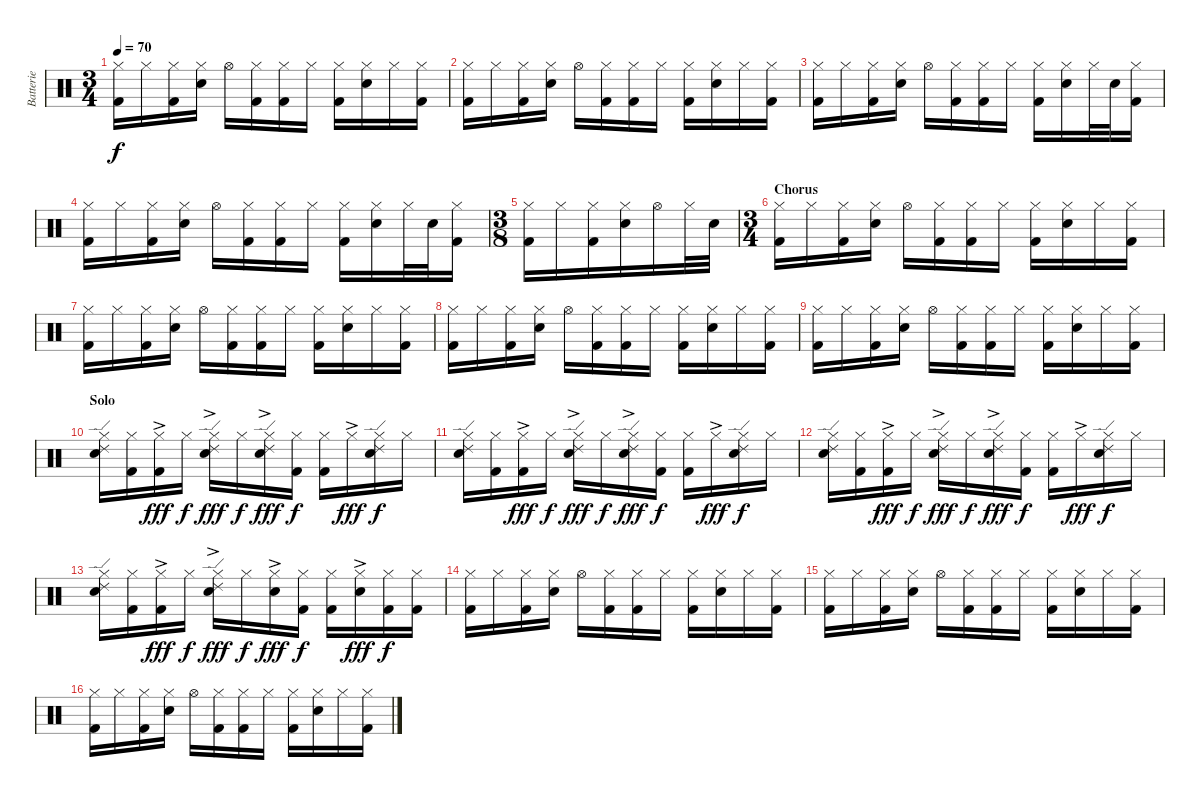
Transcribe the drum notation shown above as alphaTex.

\track ("Batterie" "Batterie") {instrument percussion}
\staff {score}
\articulation defaults
\ts (3 4)
\tempo 70
\clef neutral
\ks c
("Kick (hit) 2" "Hi-Hat (closed)").16{dy f} "Hi-Hat (closed)".16 ("Kick (hit) 2" "Hi-Hat (closed)").16 ("Electric Snare (hit)" "Hi-Hat (closed)").16 "Hi-Hat (open)".16 ("Kick (hit) 2" "Hi-Hat (closed)").16 ("Kick (hit) 2" "Hi-Hat (closed)").16 "Hi-Hat (closed)".16 ("Kick (hit) 2" "Hi-Hat (closed)").16 ("Electric Snare (hit)" "Hi-Hat (closed)").16 "Hi-Hat (closed)".16 ("Kick (hit) 2" "Hi-Hat (closed)").16 |
("Kick (hit) 2" "Hi-Hat (closed)").16 "Hi-Hat (closed)".16 ("Kick (hit) 2" "Hi-Hat (closed)").16 ("Electric Snare (hit)" "Hi-Hat (closed)").16 "Hi-Hat (open)".16 ("Kick (hit) 2" "Hi-Hat (closed)").16 ("Kick (hit) 2" "Hi-Hat (closed)").16 "Hi-Hat (closed)".16 ("Kick (hit) 2" "Hi-Hat (closed)").16 ("Electric Snare (hit)" "Hi-Hat (closed)").16 "Hi-Hat (closed)".16 ("Kick (hit) 2" "Hi-Hat (closed)").16 |
("Kick (hit) 2" "Hi-Hat (closed)").16 "Hi-Hat (closed)".16 ("Kick (hit) 2" "Hi-Hat (closed)").16 ("Electric Snare (hit)" "Hi-Hat (closed)").16 "Hi-Hat (open)".16 ("Kick (hit) 2" "Hi-Hat (closed)").16 ("Kick (hit) 2" "Hi-Hat (closed)").16 "Hi-Hat (closed)".16 ("Kick (hit) 2" "Hi-Hat (closed)").16 ("Electric Snare (hit)" "Hi-Hat (closed)").16 "Hi-Hat (closed)".32 "Electric Snare (hit)".32 ("Kick (hit) 2" "Hi-Hat (closed)").16 |
("Kick (hit) 2" "Hi-Hat (closed)").16 "Hi-Hat (closed)".16 ("Kick (hit) 2" "Hi-Hat (closed)").16 ("Electric Snare (hit)" "Hi-Hat (closed)").16 "Hi-Hat (open)".16 ("Kick (hit) 2" "Hi-Hat (closed)").16 ("Kick (hit) 2" "Hi-Hat (closed)").16 "Hi-Hat (closed)".16 ("Kick (hit) 2" "Hi-Hat (closed)").16 ("Electric Snare (hit)" "Hi-Hat (closed)").16 "Hi-Hat (closed)".32 "Electric Snare (hit)".32 ("Kick (hit) 2" "Hi-Hat (closed)").16 |
\ts (3 8)
("Kick (hit) 2" "Hi-Hat (closed)").16 "Hi-Hat (closed)".16 ("Kick (hit) 2" "Hi-Hat (closed)").16 ("Electric Snare (hit)" "Hi-Hat (closed)").16 "Hi-Hat (open)".16 "Hi-Hat (closed)".32 "Electric Snare (hit)".32 |
\ts (3 4)
\section ("" "Chorus")
("Kick (hit) 2" "Hi-Hat (closed)").16 "Hi-Hat (closed)".16 ("Kick (hit) 2" "Hi-Hat (closed)").16 ("Electric Snare (hit)" "Hi-Hat (closed)").16 "Hi-Hat (open)".16 ("Kick (hit) 2" "Hi-Hat (closed)").16 ("Kick (hit) 2" "Hi-Hat (closed)").16 "Hi-Hat (closed)".16 ("Kick (hit) 2" "Hi-Hat (closed)").16 ("Electric Snare (hit)" "Hi-Hat (closed)").16 "Hi-Hat (closed)".16 ("Kick (hit) 2" "Hi-Hat (closed)").16 |
("Kick (hit) 2" "Hi-Hat (closed)").16 "Hi-Hat (closed)".16 ("Kick (hit) 2" "Hi-Hat (closed)").16 ("Electric Snare (hit)" "Hi-Hat (closed)").16 "Hi-Hat (open)".16 ("Kick (hit) 2" "Hi-Hat (closed)").16 ("Kick (hit) 2" "Hi-Hat (closed)").16 "Hi-Hat (closed)".16 ("Kick (hit) 2" "Hi-Hat (closed)").16 ("Electric Snare (hit)" "Hi-Hat (closed)").16 "Hi-Hat (closed)".16 ("Kick (hit) 2" "Hi-Hat (closed)").16 |
("Kick (hit) 2" "Hi-Hat (closed)").16 "Hi-Hat (closed)".16 ("Kick (hit) 2" "Hi-Hat (closed)").16 ("Electric Snare (hit)" "Hi-Hat (closed)").16 "Hi-Hat (open)".16 ("Kick (hit) 2" "Hi-Hat (closed)").16 ("Kick (hit) 2" "Hi-Hat (closed)").16 "Hi-Hat (closed)".16 ("Kick (hit) 2" "Hi-Hat (closed)").16 ("Electric Snare (hit)" "Hi-Hat (closed)").16 "Hi-Hat (closed)".16 ("Kick (hit) 2" "Hi-Hat (closed)").16 |
("Kick (hit) 2" "Hi-Hat (closed)").16 "Hi-Hat (closed)".16 ("Kick (hit) 2" "Hi-Hat (closed)").16 ("Electric Snare (hit)" "Hi-Hat (closed)").16 "Hi-Hat (open)".16 ("Kick (hit) 2" "Hi-Hat (closed)").16 ("Kick (hit) 2" "Hi-Hat (closed)").16 "Hi-Hat (closed)".16 ("Kick (hit) 2" "Hi-Hat (closed)").16 ("Electric Snare (hit)" "Hi-Hat (closed)").16 "Hi-Hat (closed)".16 ("Kick (hit) 2" "Hi-Hat (closed)").16 |
\section ("" "Solo")
("Electric Snare (hit)" "Ride (edge) 2" "Hi-Hat (closed)").16 ("Kick (hit) 2" "Hi-Hat (closed)").16 ("Kick (hit) 2" "Hi-Hat (closed)"{ac}).16{dy fff} "Hi-Hat (closed)".16{dy f} ("Electric Snare (hit)" "Ride (edge) 2" "Hi-Hat (closed)"{ac}).16{dy fff} "Hi-Hat (closed)".16{dy f} ("Electric Snare (hit)" "Ride (edge) 2" "Hi-Hat (closed)"{ac}).16{dy fff} ("Kick (hit) 2" "Hi-Hat (closed)").16{dy f} ("Kick (hit) 2" "Hi-Hat (closed)").16 "Hi-Hat (closed)"{ac}.16{dy fff} ("Electric Snare (hit)" "Ride (edge) 2" "Hi-Hat (closed)").16{dy f} "Hi-Hat (closed)".16 |
("Electric Snare (hit)" "Ride (edge) 2" "Hi-Hat (closed)").16 ("Kick (hit) 2" "Hi-Hat (closed)").16 ("Kick (hit) 2" "Hi-Hat (closed)"{ac}).16{dy fff} "Hi-Hat (closed)".16{dy f} ("Electric Snare (hit)" "Ride (edge) 2" "Hi-Hat (closed)"{ac}).16{dy fff} "Hi-Hat (closed)".16{dy f} ("Electric Snare (hit)" "Ride (edge) 2" "Hi-Hat (closed)"{ac}).16{dy fff} ("Kick (hit) 2" "Hi-Hat (closed)").16{dy f} ("Kick (hit) 2" "Hi-Hat (closed)").16 "Hi-Hat (closed)"{ac}.16{dy fff} ("Electric Snare (hit)" "Ride (edge) 2" "Hi-Hat (closed)").16{dy f} "Hi-Hat (closed)".16 |
("Electric Snare (hit)" "Ride (edge) 2" "Hi-Hat (closed)").16 ("Kick (hit) 2" "Hi-Hat (closed)").16 ("Kick (hit) 2" "Hi-Hat (closed)"{ac}).16{dy fff} "Hi-Hat (closed)".16{dy f} ("Electric Snare (hit)" "Ride (edge) 2" "Hi-Hat (closed)"{ac}).16{dy fff} "Hi-Hat (closed)".16{dy f} ("Electric Snare (hit)" "Ride (edge) 2" "Hi-Hat (closed)"{ac}).16{dy fff} ("Kick (hit) 2" "Hi-Hat (closed)").16{dy f} ("Kick (hit) 2" "Hi-Hat (closed)").16 "Hi-Hat (closed)"{ac}.16{dy fff} ("Electric Snare (hit)" "Ride (edge) 2" "Hi-Hat (closed)").16{dy f} "Hi-Hat (closed)".16 |
("Electric Snare (hit)" "Ride (edge) 2" "Hi-Hat (closed)").16 ("Kick (hit) 2" "Hi-Hat (closed)").16 ("Kick (hit) 2" "Hi-Hat (closed)"{ac}).16{dy fff} "Hi-Hat (closed)".16{dy f} ("Electric Snare (hit)" "Ride (edge) 2" "Hi-Hat (closed)"{ac}).16{dy fff} "Hi-Hat (closed)".16{dy f} ("Electric Snare (hit)" "Hi-Hat (closed)"{ac}).16{dy fff} ("Kick (hit) 2" "Hi-Hat (closed)").16{dy f} ("Kick (hit) 2" "Hi-Hat (closed)").16 ("Electric Snare (hit)" "Hi-Hat (closed)"{ac}).16{dy fff} ("Kick (hit) 2" "Hi-Hat (closed)").16{dy f} ("Kick (hit) 2" "Hi-Hat (closed)").16 |
("Kick (hit) 2" "Hi-Hat (closed)").16 "Hi-Hat (closed)".16 ("Kick (hit) 2" "Hi-Hat (closed)").16 ("Electric Snare (hit)" "Hi-Hat (closed)").16 "Hi-Hat (open)".16 ("Kick (hit) 2" "Hi-Hat (closed)").16 ("Kick (hit) 2" "Hi-Hat (closed)").16 "Hi-Hat (closed)".16 ("Kick (hit) 2" "Hi-Hat (closed)").16 ("Electric Snare (hit)" "Hi-Hat (closed)").16 "Hi-Hat (closed)".16 ("Kick (hit) 2" "Hi-Hat (closed)").16 |
("Kick (hit) 2" "Hi-Hat (closed)").16 "Hi-Hat (closed)".16 ("Kick (hit) 2" "Hi-Hat (closed)").16 ("Electric Snare (hit)" "Hi-Hat (closed)").16 "Hi-Hat (open)".16 ("Kick (hit) 2" "Hi-Hat (closed)").16 ("Kick (hit) 2" "Hi-Hat (closed)").16 "Hi-Hat (closed)".16 ("Kick (hit) 2" "Hi-Hat (closed)").16 ("Electric Snare (hit)" "Hi-Hat (closed)").16 "Hi-Hat (closed)".16 ("Kick (hit) 2" "Hi-Hat (closed)").16 |
("Kick (hit) 2" "Hi-Hat (closed)").16 "Hi-Hat (closed)".16 ("Kick (hit) 2" "Hi-Hat (closed)").16 ("Electric Snare (hit)" "Hi-Hat (closed)").16 "Hi-Hat (open)".16 ("Kick (hit) 2" "Hi-Hat (closed)").16 ("Kick (hit) 2" "Hi-Hat (closed)").16 "Hi-Hat (closed)".16 ("Kick (hit) 2" "Hi-Hat (closed)").16 ("Electric Snare (hit)" "Hi-Hat (closed)").16 "Hi-Hat (closed)".16 ("Kick (hit) 2" "Hi-Hat (closed)").16
